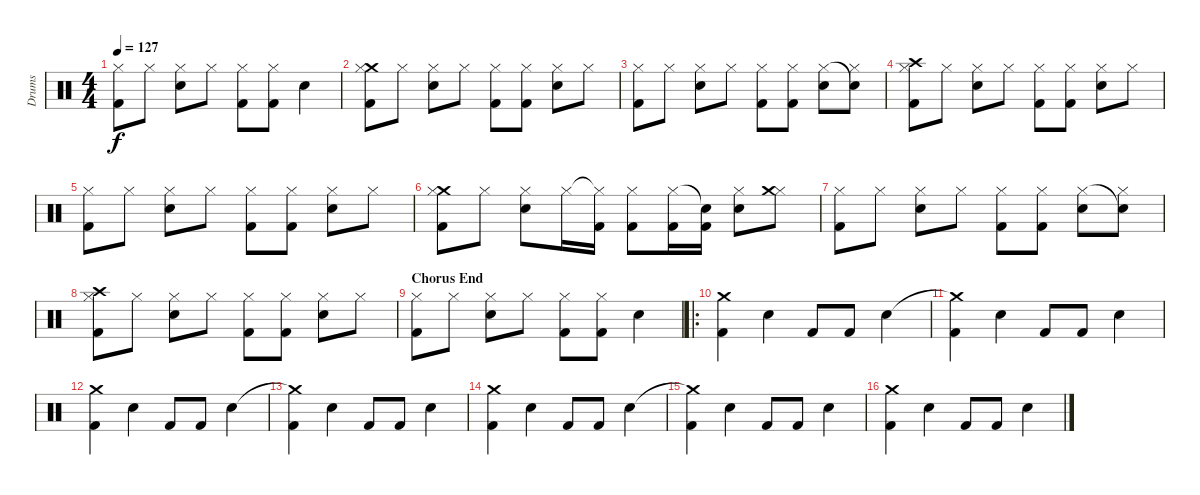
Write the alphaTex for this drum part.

\track ("Drums" "Drums") {instrument percussion}
\staff {score}
\articulation defaults
\ts (4 4)
\tempo 127
\clef neutral
\ks c
("Hi-Hat (closed)" "Kick (hit) 2").8{dy f} "Hi-Hat (closed)".8 ("Hi-Hat (closed)" "Electric Snare (hit)").8 "Hi-Hat (closed)".8 ("Hi-Hat (closed)" "Kick (hit) 2").8 ("Hi-Hat (closed)" "Kick (hit) 2").8 "Electric Snare (hit)".4 |
("Crash medium (hit)" "Hi-Hat (closed)" "Kick (hit) 2").8 "Hi-Hat (closed)".8 ("Hi-Hat (closed)" "Electric Snare (hit)").8 "Hi-Hat (closed)".8 ("Hi-Hat (closed)" "Kick (hit) 2").8 ("Hi-Hat (closed)" "Kick (hit) 2").8 ("Hi-Hat (closed)" "Electric Snare (hit)").8 "Hi-Hat (closed)".8 |
("Hi-Hat (closed)" "Kick (hit) 2").8 "Hi-Hat (closed)".8 ("Hi-Hat (closed)" "Electric Snare (hit)").8 "Hi-Hat (closed)".8 ("Hi-Hat (closed)" "Kick (hit) 2").8 ("Hi-Hat (closed)" "Kick (hit) 2").8 ("Hi-Hat (closed)" "Electric Snare (hit)").8 ("Snare (hit)"{t} "Hi-Hat (closed)").8 |
("Crash high (hit)" "Hi-Hat (closed)" "Kick (hit) 2").8 "Hi-Hat (closed)".8 ("Hi-Hat (closed)" "Electric Snare (hit)").8 "Hi-Hat (closed)".8 ("Hi-Hat (closed)" "Kick (hit) 2").8 ("Hi-Hat (closed)" "Kick (hit) 2").8 ("Hi-Hat (closed)" "Electric Snare (hit)").8 "Hi-Hat (closed)".8 |
("Hi-Hat (closed)" "Kick (hit) 2").8 "Hi-Hat (closed)".8 ("Hi-Hat (closed)" "Electric Snare (hit)").8 "Hi-Hat (closed)".8 ("Hi-Hat (closed)" "Kick (hit) 2").8 ("Hi-Hat (closed)" "Kick (hit) 2").8 ("Hi-Hat (closed)" "Electric Snare (hit)").8 "Hi-Hat (closed)".8 |
("Crash medium (hit)" "Hi-Hat (closed)" "Kick (hit) 2").8 "Hi-Hat (closed)".8 ("Hi-Hat (closed)" "Electric Snare (hit)").8 "Hi-Hat (closed)".16 ("Hi-Hat (closed)"{t} "Kick (hit) 2").16 ("Hi-Hat (closed)" "Kick (hit) 2").8 ("Hi-Hat (closed)" "Kick (hit) 2").16 ("Snare (hit)"{t} "Kick (hit) 2").16 ("Hi-Hat (closed)" "Electric Snare (hit)").8 ("Hi-Hat (closed)" "Crash medium (hit)").8 |
("Hi-Hat (closed)" "Kick (hit) 2").8 "Hi-Hat (closed)".8 ("Hi-Hat (closed)" "Electric Snare (hit)").8 "Hi-Hat (closed)".8 ("Hi-Hat (closed)" "Kick (hit) 2").8 ("Hi-Hat (closed)" "Kick (hit) 2").8 ("Hi-Hat (closed)" "Electric Snare (hit)").8 ("Snare (hit)"{t} "Hi-Hat (closed)").8 |
("Crash high (hit)" "Hi-Hat (closed)" "Kick (hit) 2").8 "Hi-Hat (closed)".8 ("Hi-Hat (closed)" "Electric Snare (hit)").8 "Hi-Hat (closed)".8 ("Hi-Hat (closed)" "Kick (hit) 2").8 ("Hi-Hat (closed)" "Kick (hit) 2").8 ("Hi-Hat (closed)" "Electric Snare (hit)").8 "Hi-Hat (closed)".8 |
\section ("" "Chorus End")
("Hi-Hat (closed)" "Kick (hit) 2").8 "Hi-Hat (closed)".8 ("Hi-Hat (closed)" "Electric Snare (hit)").8 "Hi-Hat (closed)".8 ("Hi-Hat (closed)" "Kick (hit) 2").8 ("Hi-Hat (closed)" "Kick (hit) 2").8 "Electric Snare (hit)".4 |
\ro
("Crash medium (hit)" "Kick (hit) 2").4 "Electric Snare (hit)".4 "Kick (hit) 2".8 "Kick (hit) 2".8 "Electric Snare (hit)".4 |
("Crash medium (hit)"{t} "Kick (hit) 2").4 "Electric Snare (hit)".4 "Kick (hit) 2".8 "Kick (hit) 2".8 "Electric Snare (hit)".4 |
("Crash medium (hit)" "Kick (hit) 2").4 "Electric Snare (hit)".4 "Kick (hit) 2".8 "Kick (hit) 2".8 "Electric Snare (hit)".4 |
("Crash medium (hit)"{t} "Kick (hit) 2").4 "Electric Snare (hit)".4 "Kick (hit) 2".8 "Kick (hit) 2".8 "Electric Snare (hit)".4 |
("Crash medium (hit)" "Kick (hit) 2").4 "Electric Snare (hit)".4 "Kick (hit) 2".8 "Kick (hit) 2".8 "Electric Snare (hit)".4 |
("Crash medium (hit)"{t} "Kick (hit) 2").4 "Electric Snare (hit)".4 "Kick (hit) 2".8 "Kick (hit) 2".8 "Electric Snare (hit)".4 |
("Crash medium (hit)" "Kick (hit) 2").4 "Electric Snare (hit)".4 "Kick (hit) 2".8 "Kick (hit) 2".8 "Electric Snare (hit)".4
